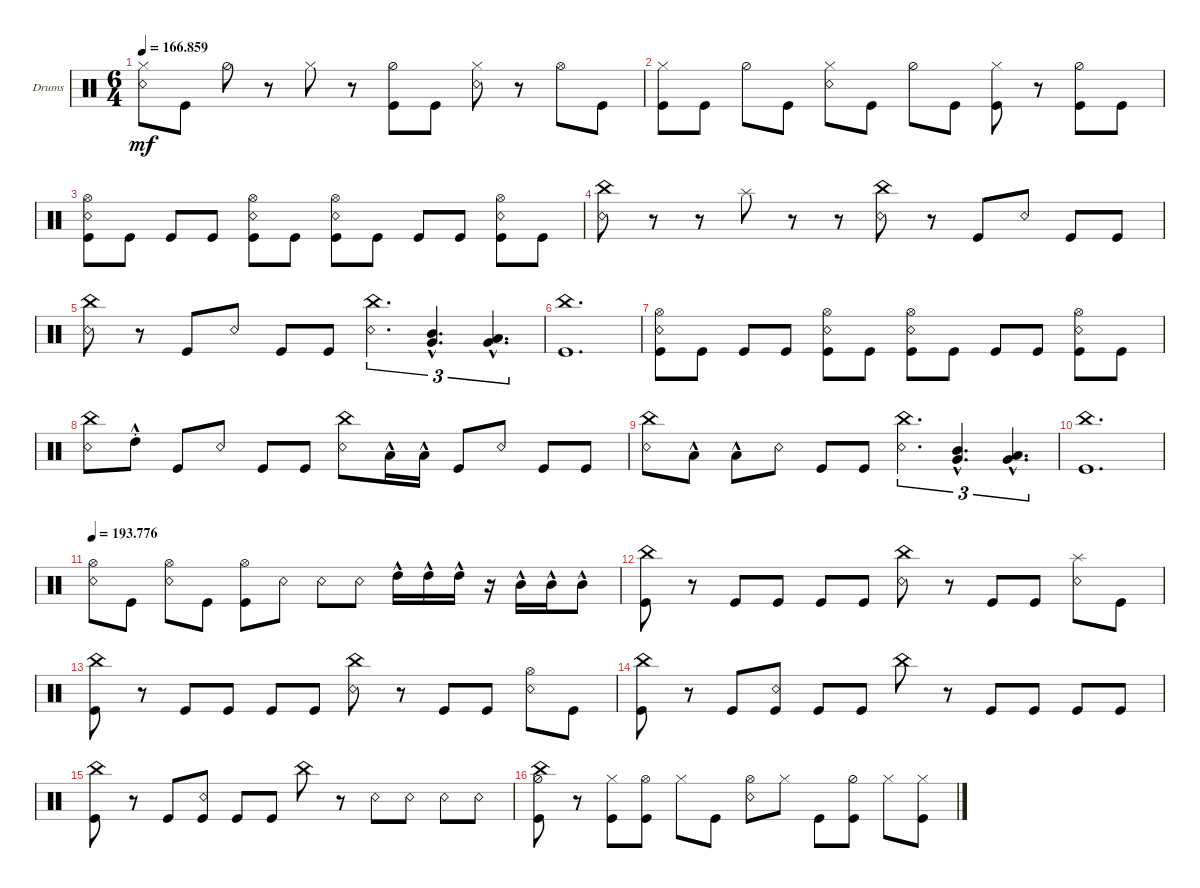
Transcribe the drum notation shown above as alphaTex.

\defaultSystemsLayout 4
\bracketExtendMode groupsimilarinstruments
\firstSystemTrackNameOrientation horizontal
\otherSystemsTrackNameOrientation horizontal
\track ("Drumkit" "Drums") {multiBarRest instrument percussion}
\staff {score}
\articulation defaults
\ts (6 4)
\tempo
166.859
\accidentals auto
\clef neutral
\ottava regular
\simile none
\scale
0.333333
\ks c
("Snare (rim shot)" "Hi-Hat (closed)").8{dy mf} "Kick (hit)".8 "Hi-Hat (half)".8 r.8 "Hi-Hat (closed)".8 r.8 ("Hi-Hat (half)" "Kick (hit)").8 "Kick (hit)".8 ("Hi-Hat (closed)" "Snare (rim shot)").8 r.8 "Hi-Hat (open)".8 "Kick (hit)".8 |
\scale
0.333333 ("Kick (hit)" "Hi-Hat (closed)").8 "Kick (hit)".8 "Hi-Hat (half)".8 "Kick (hit)".8 ("Snare (rim shot)" "Hi-Hat (closed)").8 "Kick (hit)".8 "Hi-Hat (half)".8 "Kick (hit)".8 ("Kick (hit)" "Hi-Hat (closed)").8 r.8 ("Kick (hit)" "Hi-Hat (half)").8 "Kick (hit)".8 |
\scale
0.333333 ("Snare (rim shot)" "Kick (hit)" "Hi-Hat (open)").8 "Kick (hit)".8 "Kick (hit)".8 "Kick (hit)".8 ("Kick (hit)" "Snare (rim shot)" "Hi-Hat (open)").8 "Kick (hit)".8 ("Snare (rim shot)" "Kick (hit)" "Hi-Hat (open)").8 "Kick (hit)".8 "Kick (hit)".8 "Kick (hit)".8 ("Kick (hit)" "Snare (rim shot)" "Hi-Hat (open)").8 "Kick (hit)".8 |
\scale
0.333333 ("China (hit)" "Snare (rim shot)").8 r.8 r.8 "Splash (hit)".8 r.8 r.8 ("China (hit)" "Snare (rim shot)").8 r.8 "Kick (hit)".8 "Snare (rim shot)".8 "Kick (hit)".8 "Kick (hit)".8 |
\scale
0.333333 ("China (hit)" "Snare (rim shot)").8 r.8 "Kick (hit)".8 "Snare (rim shot)".8 "Kick (hit)".8 "Kick (hit)".8 ("China (hit)" "Snare (rim shot)").4{d tu (3 2)} ("Very Low Tom (hit)"{hac} "Mid Tom (hit)"{hac}).4{d tu (3 2)} ("Very Low Tom (hit)"{hac} "Low Tom (hit)"{hac}).4{d tu (3 2)} |
\scale
0.333333 ("Kick (hit)" "China (hit)").1{d} |
\scale
0.333333 ("Snare (rim shot)" "Kick (hit)" "Hi-Hat (open)").8 "Kick (hit)".8 "Kick (hit)".8 "Kick (hit)".8 ("Kick (hit)" "Snare (rim shot)" "Hi-Hat (open)").8 "Kick (hit)".8 ("Snare (rim shot)" "Kick (hit)" "Hi-Hat (open)").8 "Kick (hit)".8 "Kick (hit)".8 "Kick (hit)".8 ("Kick (hit)" "Snare (rim shot)" "Hi-Hat (open)").8 "Kick (hit)".8 |
\scale
0.333333 ("China (hit)" "Snare (rim shot)").8 "High Tom (hit)"{hac st}.8 "Kick (hit)".8 "Snare (rim shot)".8 "Kick (hit)".8 "Kick (hit)".8 ("China (hit)" "Snare (rim shot)").8 "Low Tom (hit)"{hac}.16 "Low Tom (hit)"{hac}.16 "Kick (hit)".8 "Snare (rim shot)".8 "Kick (hit)".8 "Kick (hit)".8 |
\scale
0.333333 ("China (hit)" "Snare (rim shot)").8 "Low Tom (hit)"{hac}.8 "Low Tom (hit)"{hac}.8 "Snare (rim shot)".8 "Kick (hit)".8 "Kick (hit)".8 ("China (hit)" "Snare (rim shot)").4{d tu (3 2)} ("Very Low Tom (hit)"{hac} "Mid Tom (hit)"{hac}).4{d tu (3 2)} ("Very Low Tom (hit)"{hac} "Low Tom (hit)"{hac}).4{d tu (3 2)} |
\scale
0.333333 ("Kick (hit)" "China (hit)").1{d} |
\tempo
193.776
\scale
0.333333 ("Snare (rim shot)" "Hi-Hat (open)").8 "Kick (hit)".8 ("Snare (rim shot)" "Hi-Hat (open)").8 "Kick (hit)".8 ("Kick (hit)" "Hi-Hat (open)").8 "Snare (rim shot)".8 "Snare (rim shot)".8 "Snare (rim shot)".8 "High Tom (hit)"{hac}.16 "High Tom (hit)"{hac}.16 "High Tom (hit)"{hac}.16 r.16 "Mid Tom (hit)"{hac}.16 "Mid Tom (hit)"{hac}.16 "Mid Tom (hit)"{hac}.8 |
\scale
0.333333 ("China (hit)" "Kick (hit)").8 r.8 "Kick (hit)".8 "Kick (hit)".8 "Kick (hit)".8 "Kick (hit)".8 ("Snare (rim shot)" "China (hit)").8 r.8 "Kick (hit)".8 "Kick (hit)".8 ("Snare (rim shot)" "Splash (hit)").8 "Kick (hit)".8 |
\scale
0.333333 ("China (hit)" "Kick (hit)").8 r.8 "Kick (hit)".8 "Kick (hit)".8 "Kick (hit)".8 "Kick (hit)".8 ("Snare (rim shot)" "China (hit)").8 r.8 "Kick (hit)".8 "Kick (hit)".8 ("Snare (rim shot)" "Hi-Hat (open)").8 "Kick (hit)".8 |
\scale
0.333333 ("China (hit)" "Kick (hit)").8 r.8 "Kick (hit)".8 ("Kick (hit)" "Snare (rim shot)").8 "Kick (hit)".8 "Kick (hit)".8 "China (hit)".8 r.8 "Kick (hit)".8 "Kick (hit)".8 "Kick (hit)".8 "Kick (hit)".8 |
\scale
0.333333 ("China (hit)" "Kick (hit)").8 r.8 "Kick (hit)".8 ("Kick (hit)" "Snare (rim shot)").8 "Kick (hit)".8 "Kick (hit)".8 "China (hit)".8 r.8 "Snare (rim shot)".8 "Snare (rim shot)".8 "Snare (rim shot)".8 "Snare (rim shot)".8 |
\scale
0.333333 ("Kick (hit)" "Hi-Hat (half)" "China (hit)").8 r.8 ("Hi-Hat (closed)" "Kick (hit)").8 ("Kick (hit)" "Hi-Hat (open)").8 "Hi-Hat (closed)".8 "Kick (hit)".8 ("Snare (rim shot)" "Hi-Hat (open)").8 "Hi-Hat (closed)".8 "Kick (hit)".8 ("Kick (hit)" "Hi-Hat (half)").8 "Hi-Hat (closed)".8 ("Hi-Hat (closed)" "Kick (hit)").8
